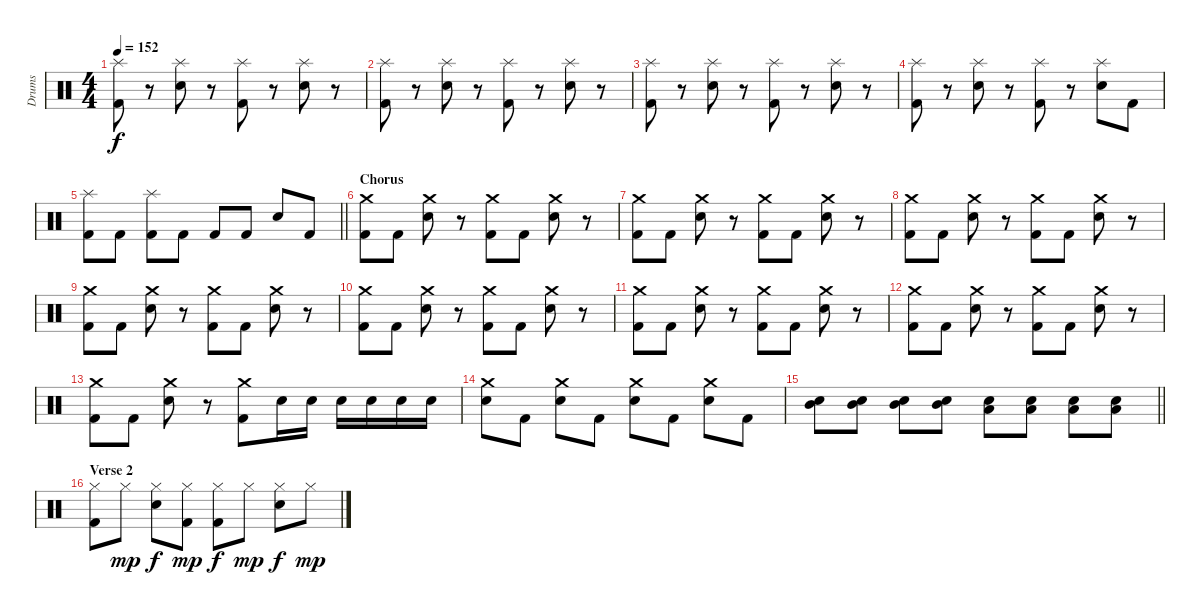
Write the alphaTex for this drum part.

\track ("Drums" "Drums") {instrument percussion}
\staff {score}
\articulation defaults
\ts (4 4)
\tempo 152
\clef neutral
\ks c
("Splash (hit)" "Kick (hit) 2").8{dy f} r.8 ("Splash (hit)" "Electric Snare (hit)").8 r.8 ("Splash (hit)" "Kick (hit) 2").8 r.8 ("Splash (hit)" "Electric Snare (hit)").8 r.8 |
("Splash (hit)" "Kick (hit) 2").8 r.8 ("Splash (hit)" "Electric Snare (hit)").8 r.8 ("Splash (hit)" "Kick (hit) 2").8 r.8 ("Splash (hit)" "Electric Snare (hit)").8 r.8 |
("Splash (hit)" "Kick (hit) 2").8 r.8 ("Splash (hit)" "Electric Snare (hit)").8 r.8 ("Splash (hit)" "Kick (hit) 2").8 r.8 ("Splash (hit)" "Electric Snare (hit)").8 r.8 |
("Splash (hit)" "Kick (hit) 2").8 r.8 ("Splash (hit)" "Electric Snare (hit)").8 r.8 ("Splash (hit)" "Kick (hit) 2").8 r.8 ("Splash (hit)" "Electric Snare (hit)").8 "Kick (hit) 2".8 |
\barLineRight lightlight
("Splash (hit)" "Kick (hit) 2").8 "Kick (hit) 2".8 ("Splash (hit)" "Kick (hit) 2").8 "Kick (hit) 2".8 "Kick (hit) 2".8 "Kick (hit) 2".8 "Electric Snare (hit)".8 "Kick (hit) 2".8 |
\section ("" "Chorus")
("Crash medium (hit)" "Kick (hit) 2").8 "Kick (hit) 2".8 ("Crash medium (hit)" "Electric Snare (hit)").8 r.8 ("Crash medium (hit)" "Kick (hit) 2").8 "Kick (hit) 2".8 ("Crash medium (hit)" "Electric Snare (hit)").8 r.8 |
("Crash medium (hit)" "Kick (hit) 2").8 "Kick (hit) 2".8 ("Crash medium (hit)" "Electric Snare (hit)").8 r.8 ("Crash medium (hit)" "Kick (hit) 2").8 "Kick (hit) 2".8 ("Crash medium (hit)" "Electric Snare (hit)").8 r.8 |
("Crash medium (hit)" "Kick (hit) 2").8 "Kick (hit) 2".8 ("Crash medium (hit)" "Electric Snare (hit)").8 r.8 ("Crash medium (hit)" "Kick (hit) 2").8 "Kick (hit) 2".8 ("Crash medium (hit)" "Electric Snare (hit)").8 r.8 |
("Crash medium (hit)" "Kick (hit) 2").8 "Kick (hit) 2".8 ("Crash medium (hit)" "Electric Snare (hit)").8 r.8 ("Crash medium (hit)" "Kick (hit) 2").8 "Kick (hit) 2".8 ("Crash medium (hit)" "Electric Snare (hit)").8 r.8 |
("Crash medium (hit)" "Kick (hit) 2").8 "Kick (hit) 2".8 ("Crash medium (hit)" "Electric Snare (hit)").8 r.8 ("Crash medium (hit)" "Kick (hit) 2").8 "Kick (hit) 2".8 ("Crash medium (hit)" "Electric Snare (hit)").8 r.8 |
("Crash medium (hit)" "Kick (hit) 2").8 "Kick (hit) 2".8 ("Crash medium (hit)" "Electric Snare (hit)").8 r.8 ("Crash medium (hit)" "Kick (hit) 2").8 "Kick (hit) 2".8 ("Crash medium (hit)" "Electric Snare (hit)").8 r.8 |
("Crash medium (hit)" "Kick (hit) 2").8 "Kick (hit) 2".8 ("Crash medium (hit)" "Electric Snare (hit)").8 r.8 ("Crash medium (hit)" "Kick (hit) 2").8 "Kick (hit) 2".8 ("Crash medium (hit)" "Electric Snare (hit)").8 r.8 |
("Crash medium (hit)" "Kick (hit) 2").8 "Kick (hit) 2".8 ("Crash medium (hit)" "Electric Snare (hit)").8 r.8 ("Crash medium (hit)" "Kick (hit) 2").8 "Electric Snare (hit)".16 "Electric Snare (hit)".16 "Electric Snare (hit)".16 "Electric Snare (hit)".16 "Electric Snare (hit)".16 "Electric Snare (hit)".16 |
("Crash medium (hit)" "Electric Snare (hit)").8 "Kick (hit) 2".8 ("Crash medium (hit)" "Electric Snare (hit)").8 "Kick (hit) 2".8 ("Crash medium (hit)" "Electric Snare (hit)").8 "Kick (hit) 2".8 ("Crash medium (hit)" "Electric Snare (hit)").8 "Kick (hit) 2".8 |
\barLineRight lightlight
("Mid Tom (hit)" "Electric Snare (hit)").8 ("Mid Tom (hit)" "Electric Snare (hit)").8 ("Mid Tom (hit)" "Electric Snare (hit)").8 ("Mid Tom (hit)" "Electric Snare (hit)").8 ("Low Tom (hit)" "Electric Snare (hit)").8 ("Low Tom (hit)" "Electric Snare (hit)").8 ("Low Tom (hit)" "Electric Snare (hit)").8 ("Low Tom (hit)" "Electric Snare (hit)").8 |
\section ("" "Verse 2")
("Hi-Hat (closed)" "Kick (hit) 2").8 "Hi-Hat (closed)".8{dy mp} ("Hi-Hat (closed)" "Electric Snare (hit)").8{dy f} ("Hi-Hat (closed)" "Kick (hit) 2").8{dy mp} ("Hi-Hat (closed)" "Kick (hit) 2").8{dy f} "Hi-Hat (closed)".8{dy mp} ("Hi-Hat (closed)" "Electric Snare (hit)").8{dy f} "Hi-Hat (closed)".8{dy mp}
